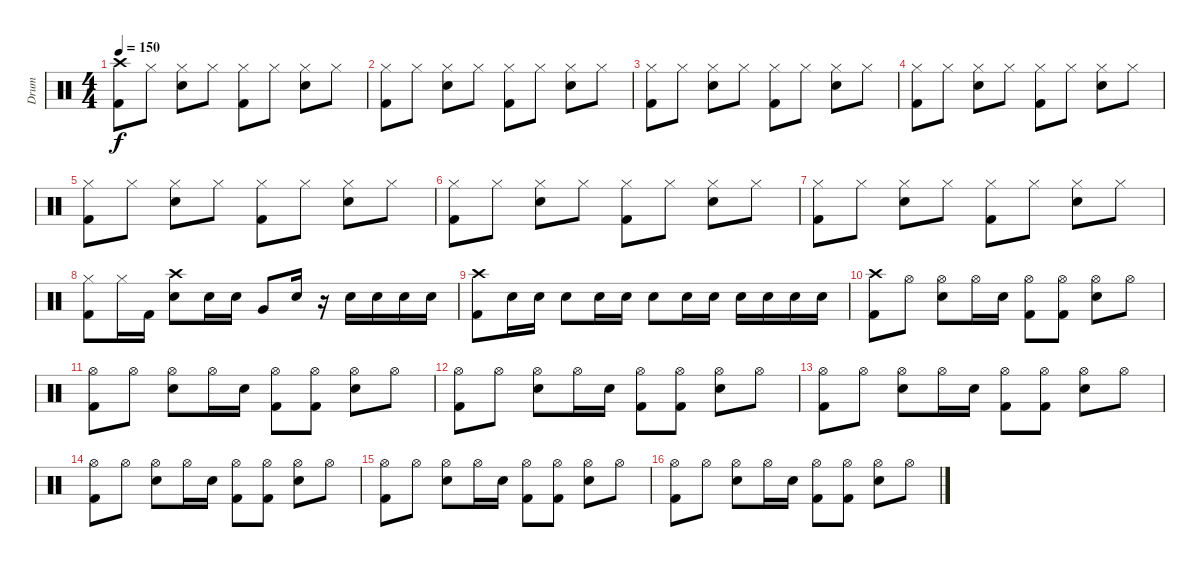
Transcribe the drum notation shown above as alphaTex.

\track ("Drum" "Drum") {instrument percussion}
\staff {score}
\articulation defaults
\ts (4 4)
\tempo 150
\clef neutral
\ks c
("Kick (hit) 2" "Crash high (hit)").8{dy f} "Hi-Hat (closed)".8 ("Hi-Hat (closed)" "Snare (hit) 2").8 "Hi-Hat (closed)".8 ("Hi-Hat (closed)" "Kick (hit) 2").8 "Hi-Hat (closed)".8 ("Hi-Hat (closed)" "Snare (hit) 2").8 "Hi-Hat (closed)".8 |
("Kick (hit) 2" "Hi-Hat (closed)").8 "Hi-Hat (closed)".8 ("Hi-Hat (closed)" "Snare (hit) 2").8 "Hi-Hat (closed)".8 ("Hi-Hat (closed)" "Kick (hit) 2").8 "Hi-Hat (closed)".8 ("Hi-Hat (closed)" "Snare (hit) 2").8 "Hi-Hat (closed)".8 |
("Kick (hit) 2" "Hi-Hat (closed)").8 "Hi-Hat (closed)".8 ("Hi-Hat (closed)" "Snare (hit) 2").8 "Hi-Hat (closed)".8 ("Hi-Hat (closed)" "Kick (hit) 2").8 "Hi-Hat (closed)".8 ("Hi-Hat (closed)" "Snare (hit) 2").8 "Hi-Hat (closed)".8 |
("Kick (hit) 2" "Hi-Hat (closed)").8 "Hi-Hat (closed)".8 ("Hi-Hat (closed)" "Snare (hit) 2").8 "Hi-Hat (closed)".8 ("Hi-Hat (closed)" "Kick (hit) 2").8 "Hi-Hat (closed)".8 ("Hi-Hat (closed)" "Snare (hit) 2").8 "Hi-Hat (closed)".8 |
("Kick (hit) 2" "Hi-Hat (closed)").8 "Hi-Hat (closed)".8 ("Hi-Hat (closed)" "Snare (hit) 2").8 "Hi-Hat (closed)".8 ("Hi-Hat (closed)" "Kick (hit) 2").8 "Hi-Hat (closed)".8 ("Hi-Hat (closed)" "Snare (hit) 2").8 "Hi-Hat (closed)".8 |
("Kick (hit) 2" "Hi-Hat (closed)").8 "Hi-Hat (closed)".8 ("Hi-Hat (closed)" "Snare (hit) 2").8 "Hi-Hat (closed)".8 ("Hi-Hat (closed)" "Kick (hit) 2").8 "Hi-Hat (closed)".8 ("Hi-Hat (closed)" "Snare (hit) 2").8 "Hi-Hat (closed)".8 |
("Kick (hit) 2" "Hi-Hat (closed)").8 "Hi-Hat (closed)".8 ("Hi-Hat (closed)" "Snare (hit) 2").8 "Hi-Hat (closed)".8 ("Hi-Hat (closed)" "Kick (hit) 2").8 "Hi-Hat (closed)".8 ("Hi-Hat (closed)" "Snare (hit) 2").8 "Hi-Hat (closed)".8 |
("Kick (hit) 2" "Hi-Hat (closed)").8 "Hi-Hat (closed)".16 "Kick (hit) 2".16 ("Snare (hit) 2" "Crash high (hit)").8 "Snare (hit) 2".16 "Snare (hit) 2".16 "Very Low Tom (hit)".8 "Snare (hit) 2".16 r.16 "Snare (hit) 2".16 "Snare (hit) 2".16 "Snare (hit) 2".16 "Snare (hit) 2".16 |
("Crash high (hit)" "Kick (hit) 2").8 "Snare (hit) 2".16 "Snare (hit) 2".16 "Snare (hit) 2".8 "Snare (hit) 2".16 "Snare (hit) 2".16 "Snare (hit) 2".8 "Snare (hit) 2".16 "Snare (hit) 2".16 "Snare (hit) 2".16 "Snare (hit) 2".16 "Snare (hit) 2".16 "Snare (hit) 2".16 |
("Crash high (hit)" "Kick (hit) 2").8 "Hi-Hat (open)".8 ("Hi-Hat (open)" "Snare (hit) 2").8 "Hi-Hat (open)".16 "Snare (hit) 2".16 ("Hi-Hat (open)" "Kick (hit) 2").8 ("Hi-Hat (open)" "Kick (hit) 2").8 ("Hi-Hat (open)" "Snare (hit) 2").8 "Hi-Hat (open)".8 |
("Hi-Hat (open)" "Kick (hit) 2").8 "Hi-Hat (open)".8 ("Hi-Hat (open)" "Snare (hit) 2").8 "Hi-Hat (open)".16 "Snare (hit) 2".16 ("Hi-Hat (open)" "Kick (hit) 2").8 ("Hi-Hat (open)" "Kick (hit) 2").8 ("Hi-Hat (open)" "Snare (hit) 2").8 "Hi-Hat (open)".8 |
("Hi-Hat (open)" "Kick (hit) 2").8 "Hi-Hat (open)".8 ("Hi-Hat (open)" "Snare (hit) 2").8 "Hi-Hat (open)".16 "Snare (hit) 2".16 ("Hi-Hat (open)" "Kick (hit) 2").8 ("Hi-Hat (open)" "Kick (hit) 2").8 ("Hi-Hat (open)" "Snare (hit) 2").8 "Hi-Hat (open)".8 |
("Hi-Hat (open)" "Kick (hit) 2").8 "Hi-Hat (open)".8 ("Hi-Hat (open)" "Snare (hit) 2").8 "Hi-Hat (open)".16 "Snare (hit) 2".16 ("Hi-Hat (open)" "Kick (hit) 2").8 ("Hi-Hat (open)" "Kick (hit) 2").8 ("Hi-Hat (open)" "Snare (hit) 2").8 "Hi-Hat (open)".8 |
("Hi-Hat (open)" "Kick (hit) 2").8 "Hi-Hat (open)".8 ("Hi-Hat (open)" "Snare (hit) 2").8 "Hi-Hat (open)".16 "Snare (hit) 2".16 ("Hi-Hat (open)" "Kick (hit) 2").8 ("Hi-Hat (open)" "Kick (hit) 2").8 ("Hi-Hat (open)" "Snare (hit) 2").8 "Hi-Hat (open)".8 |
("Hi-Hat (open)" "Kick (hit) 2").8 "Hi-Hat (open)".8 ("Hi-Hat (open)" "Snare (hit) 2").8 "Hi-Hat (open)".16 "Snare (hit) 2".16 ("Hi-Hat (open)" "Kick (hit) 2").8 ("Hi-Hat (open)" "Kick (hit) 2").8 ("Hi-Hat (open)" "Snare (hit) 2").8 "Hi-Hat (open)".8 |
("Hi-Hat (open)" "Kick (hit) 2").8 "Hi-Hat (open)".8 ("Hi-Hat (open)" "Snare (hit) 2").8 "Hi-Hat (open)".16 "Snare (hit) 2".16 ("Hi-Hat (open)" "Kick (hit) 2").8 ("Hi-Hat (open)" "Kick (hit) 2").8 ("Hi-Hat (open)" "Snare (hit) 2").8 "Hi-Hat (open)".8
